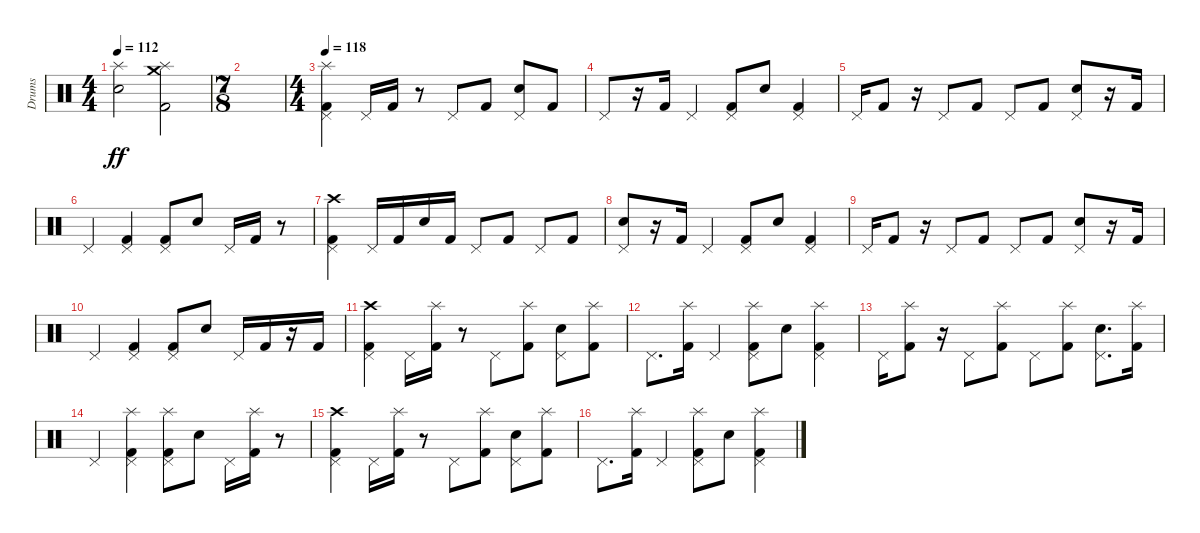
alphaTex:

\track ("Drums" "Drums") {instrument percussion}
\staff {score}
\articulation defaults
\ts (4 4)
\tempo 112
\clef neutral
\ks c
("Splash (hit)" "Electric Snare (hit)").2{dy ff} ("Crash medium (hit)" "Splash (hit)" "Kick (hit) 2").2 |
\ts (7 8)
|
\ts (4 4)
\section ("" "")
\tempo 118
("Splash (hit)" "Pedal Hi-Hat (hit)" "Kick (hit) 2").4 "Pedal Hi-Hat (hit)".16 "Kick (hit) 2".16 r.8 "Pedal Hi-Hat (hit)".8 "Kick (hit) 2".8 ("Pedal Hi-Hat (hit)" "Electric Snare (hit)").8 "Kick (hit) 2".8 |
"Pedal Hi-Hat (hit)".8 r.16 "Kick (hit) 2".16 "Pedal Hi-Hat (hit)".4 ("Pedal Hi-Hat (hit)" "Kick (hit) 2").8 "Electric Snare (hit)".8 ("Pedal Hi-Hat (hit)" "Kick (hit) 2").4 |
"Pedal Hi-Hat (hit)".16 "Kick (hit) 2".8 r.16 "Pedal Hi-Hat (hit)".8 "Kick (hit) 2".8 "Pedal Hi-Hat (hit)".8 "Kick (hit) 2".8 ("Pedal Hi-Hat (hit)" "Electric Snare (hit)").8 r.16 "Kick (hit) 2".16 |
"Pedal Hi-Hat (hit)".4 ("Pedal Hi-Hat (hit)" "Kick (hit) 2").4 ("Pedal Hi-Hat (hit)" "Kick (hit) 2").8 "Electric Snare (hit)".8 "Pedal Hi-Hat (hit)".16 "Kick (hit) 2".16 r.8 |
("Crash high (hit)" "Pedal Hi-Hat (hit)" "Kick (hit) 2").4 "Pedal Hi-Hat (hit)".16 "Kick (hit) 2".16 "Electric Snare (hit)".16 "Kick (hit) 2".16 "Pedal Hi-Hat (hit)".8 "Kick (hit) 2".8 "Pedal Hi-Hat (hit)".8 "Kick (hit) 2".8 |
("Pedal Hi-Hat (hit)" "Electric Snare (hit)").8 r.16 "Kick (hit) 2".16 "Pedal Hi-Hat (hit)".4 ("Pedal Hi-Hat (hit)" "Kick (hit) 2").8 "Electric Snare (hit)".8 ("Pedal Hi-Hat (hit)" "Kick (hit) 2").4 |
"Pedal Hi-Hat (hit)".16 "Kick (hit) 2".8 r.16 "Pedal Hi-Hat (hit)".8 "Kick (hit) 2".8 "Pedal Hi-Hat (hit)".8 "Kick (hit) 2".8 ("Pedal Hi-Hat (hit)" "Electric Snare (hit)").8 r.16 "Kick (hit) 2".16 |
"Pedal Hi-Hat (hit)".4 ("Pedal Hi-Hat (hit)" "Kick (hit) 2").4 ("Pedal Hi-Hat (hit)" "Kick (hit) 2").8 "Electric Snare (hit)".8 "Pedal Hi-Hat (hit)".16 "Kick (hit) 2".16 r.16 "Kick (hit) 2".16 |
("Crash high (hit)" "Pedal Hi-Hat (hit)" "Kick (hit) 2").4 "Pedal Hi-Hat (hit)".16 ("Splash (hit)" "Kick (hit) 2").16 r.8 "Pedal Hi-Hat (hit)".8 ("Splash (hit)" "Kick (hit) 2").8 ("Pedal Hi-Hat (hit)" "Electric Snare (hit)").8 ("Splash (hit)" "Kick (hit) 2").8 |
"Pedal Hi-Hat (hit)".8{d} ("Splash (hit)" "Kick (hit) 2").16 "Pedal Hi-Hat (hit)".4 ("Splash (hit)" "Pedal Hi-Hat (hit)" "Kick (hit) 2").8 "Electric Snare (hit)".8 ("Splash (hit)" "Pedal Hi-Hat (hit)" "Kick (hit) 2").4 |
"Pedal Hi-Hat (hit)".16 ("Splash (hit)" "Kick (hit) 2").8 r.16 "Pedal Hi-Hat (hit)".8 ("Splash (hit)" "Kick (hit) 2").8 "Pedal Hi-Hat (hit)".8 ("Splash (hit)" "Kick (hit) 2").8 ("Pedal Hi-Hat (hit)" "Electric Snare (hit)").8{d} ("Splash (hit)" "Kick (hit) 2").16 |
"Pedal Hi-Hat (hit)".4 ("Splash (hit)" "Pedal Hi-Hat (hit)" "Kick (hit) 2").4 ("Splash (hit)" "Pedal Hi-Hat (hit)" "Kick (hit) 2").8 "Electric Snare (hit)".8 "Pedal Hi-Hat (hit)".16 ("Splash (hit)" "Kick (hit) 2").16 r.8 |
("Crash high (hit)" "Pedal Hi-Hat (hit)" "Kick (hit) 2").4 "Pedal Hi-Hat (hit)".16 ("Splash (hit)" "Kick (hit) 2").16 r.8 "Pedal Hi-Hat (hit)".8 ("Splash (hit)" "Kick (hit) 2").8 ("Pedal Hi-Hat (hit)" "Electric Snare (hit)").8 ("Splash (hit)" "Kick (hit) 2").8 |
"Pedal Hi-Hat (hit)".8{d} ("Splash (hit)" "Kick (hit) 2").16 "Pedal Hi-Hat (hit)".4 ("Splash (hit)" "Pedal Hi-Hat (hit)" "Kick (hit) 2").8 "Electric Snare (hit)".8 ("Splash (hit)" "Pedal Hi-Hat (hit)" "Kick (hit) 2").4
